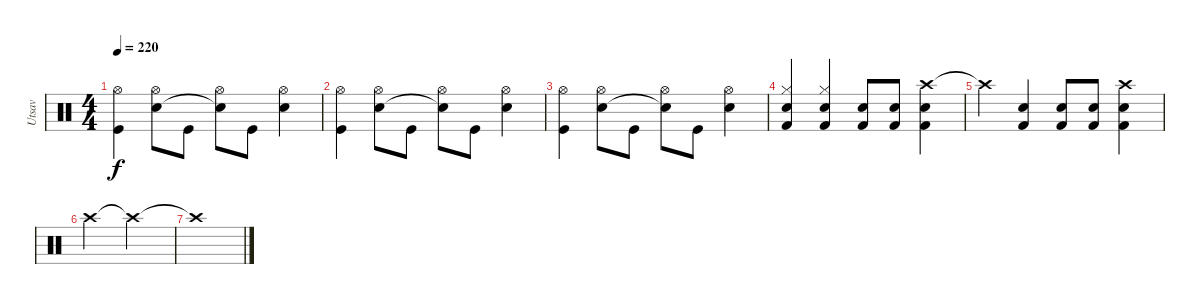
\track ("Utsav" "Utsav") {instrument percussion}
\staff {score}
\articulation defaults
\ts (4 4)
\tempo 220
\clef neutral
\ks c
("Hi-Hat (open)" "Kick (hit)").4{dy f} ("Hi-Hat (open)" "Electric Snare (hit)").8 "Kick (hit)".8 ("Hi-Hat (open)" "Snare (hit)"{t}).8 "Kick (hit)".8 ("Hi-Hat (open)" "Electric Snare (hit)").4 |
("Hi-Hat (open)" "Kick (hit)").4 ("Hi-Hat (open)" "Electric Snare (hit)").8 "Kick (hit)".8 ("Hi-Hat (open)" "Snare (hit)"{t}).8 "Kick (hit)".8 ("Hi-Hat (open)" "Electric Snare (hit)").4 |
("Hi-Hat (open)" "Kick (hit)").4 ("Hi-Hat (open)" "Electric Snare (hit)").8 "Kick (hit)".8 ("Hi-Hat (open)" "Snare (hit)"{t}).8 "Kick (hit)".8 ("Hi-Hat (open)" "Electric Snare (hit)").4 |
("Snare (hit) 2" "Hi-Hat (closed)" "Kick (hit) 2").4 ("Snare (hit) 2" "Hi-Hat (closed)" "Kick (hit) 2").4 ("Snare (hit) 2" "Kick (hit) 2").8 ("Snare (hit) 2" "Kick (hit) 2").8 ("Crash high (hit)" "Snare (hit) 2" "Kick (hit) 2").4 |
"Crash high (hit)"{t}.4 ("Kick (hit) 2" "Snare (hit) 2").4 ("Kick (hit) 2" "Snare (hit) 2").8 ("Kick (hit) 2" "Snare (hit) 2").8 ("Crash high (hit)" "Kick (hit) 2" "Snare (hit) 2").4 |
"Crash high (hit)".2 "Crash high (hit)"{t}.2 |
"Crash high (hit)"{t}.1
